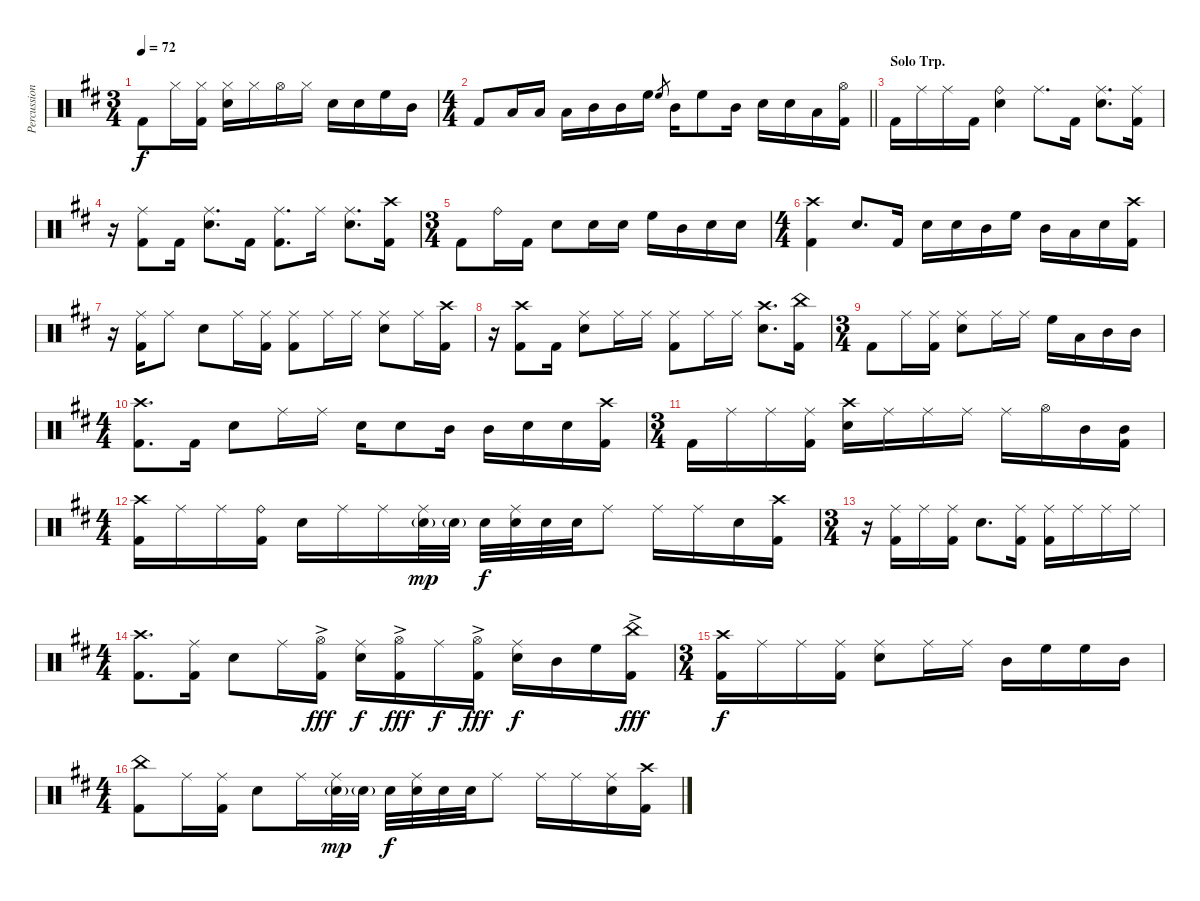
\track ("Percussions" "Percussion") {instrument percussion}
\staff {score}
\articulation defaults
\ts (3 4)
\tempo 72
\clef neutral
\ks bminor "Kick (hit) 2".8{dy f} "Hi-Hat (closed)".16
("Hi-Hat (closed)" "Kick (hit) 2").16 ("Hi-Hat (closed)" "Snare (hit) 2").16 "Hi-Hat (closed)".16 "Hi-Hat (open)".16 "Hi-Hat (closed)".16 "Snare (hit) 2".16 "Snare (hit) 2".16 "High Floor Tom (hit)".16 "Mid Tom (hit)".16 |
\ts (4 4)
\barLineRight lightlight "Kick (hit) 2".8 "Low Floor Tom (hit)".16 "Low Tom (hit)".16 "Low Tom (hit)".16 "Mid Tom (hit)".16 "Mid Tom (hit)".16 "High Floor Tom (hit)".16 "High Floor Tom (hit)".8{gr} "Mid Tom (hit)".16 "High Floor Tom (hit)".8 "Mid Tom (hit)".16 "Snare (hit) 2".16 "Snare (hit) 2".16 "Low Tom (hit)".16
("Hi-Hat (open)" "Kick (hit) 2").16 |
\section ("" "Solo Trp.")
"Kick (hit) 2".16 "Ride (middle)".16 "Ride (middle)".16 "Kick (hit) 2".16 ("Ride (bell)" "Snare (hit) 2").4 "Ride (middle)".8{d} "Kick (hit) 2".16 ("Ride (middle)" "Snare (hit) 2").8{d} ("Ride (middle)" "Kick (hit) 2").16 |
r.16 ("Ride (middle)" "Kick (hit) 2").8 "Kick (hit) 2".16 ("Ride (middle)" "Snare (hit) 2").8{d} "Kick (hit) 2".16 ("Ride (middle)" "Kick (hit) 2").8{d} "Ride (middle)".16 ("Ride (middle)" "Snare (hit) 2").8{d} ("Crash high (hit)" "Kick (hit) 2").16 |
\ts (3 4)
"Kick (hit) 2".8 "Ride (bell)".16 "Kick (hit) 2".16 "Snare (hit) 2".8 "Snare (hit) 2".16 "Snare (hit) 2".16 "High Floor Tom (hit)".16 "Mid Tom (hit)".16 "Snare (hit) 2".16 "Snare (hit) 2".16 |
\ts (4 4)
("Crash high (hit)" "Kick (hit) 2").4 "Snare (hit) 2".8{d} "Kick (hit) 2".16 "Snare (hit) 2".16 "Snare (hit) 2".16 "Mid Tom (hit)".16 "High Floor Tom (hit)".16 "Mid Tom (hit)".16 "Low Tom (hit)".16 "Snare (hit) 2".16 ("Crash high (hit)" "Kick (hit) 2").16 |
r.16 ("Ride (middle)" "Kick (hit) 2").16 "Ride (middle)".8 "Snare (hit) 2".8 "Ride (middle)".16 ("Ride (middle)" "Kick (hit) 2").16 ("Ride (middle)" "Kick (hit) 2").8 "Ride (middle)".16 "Ride (middle)".16 ("Ride (middle)" "Snare (hit) 2").8 "Ride (middle)".16 ("Crash high (hit)" "Kick (hit) 2").16 |
r.16 ("Crash high (hit)" "Kick (hit) 2").8 "Kick (hit) 2".16 ("Ride (middle)" "Snare (hit) 2").8 "Ride (middle)".16 "Ride (middle)".16 ("Ride (middle)" "Kick (hit) 2").8 "Ride (middle)".16 "Ride (middle)".16 ("Crash high (hit)" "Snare (hit) 2").8{d} ("China (hit)" "Kick (hit) 2").16 |
\ts (3 4)
"Kick (hit) 2".8 "Ride (middle)".16 ("Ride (middle)" "Kick (hit) 2").16 ("Ride (middle)" "Snare (hit) 2").8 "Ride (middle)".16 "Ride (middle)".16 "High Floor Tom (hit)".16 "Low Tom (hit)".16 "Mid Tom (hit)".16 "Mid Tom (hit)".16 |
\ts (4 4)
("Crash high (hit)" "Kick (hit) 2").8{d} "Kick (hit) 2".16 "Snare (hit) 2".8 "Ride (middle)".16 "Ride (middle)".16 "Snare (hit) 2".16 "Snare (hit) 2".8 "Mid Tom (hit)".16 "Mid Tom (hit)".16 "Snare (hit) 2".16 "Snare (hit) 2".16 ("Crash high (hit)" "Kick (hit) 2").16 |
\ts (3 4)
"Kick (hit) 2".16 "Ride (middle)".16 "Ride (middle)".16 ("Ride (middle)" "Kick (hit) 2").16 ("Crash high (hit)" "Snare (hit) 2").16 "Ride (middle)".16 "Ride (middle)".16 "Ride (middle)".16 "Ride (middle)".16 "Hi-Hat (open)".16 "Mid Tom (hit)".16 ("Mid Tom (hit)" "Kick (hit) 2").16 |
\ts (4 4)
("Crash high (hit)" "Kick (hit) 2").16 "Ride (middle)".16 "Ride (middle)".16 ("Ride (bell)" "Kick (hit) 2").16 "Snare (hit) 2".16 "Ride (middle)".16 "Ride (middle)".16 ("Ride (middle)" "Snare (hit) 2"{g}).32{dy mp} "Snare (hit) 2"{g}.32 "Snare (hit) 2".32{dy f} ("Ride (middle)" "Snare (hit) 2").32 "Snare (hit) 2".32 "Snare (hit) 2".32 "Ride (middle)".8 "Ride (middle)".16 "Ride (middle)".16 "Snare (hit) 2".16 ("Crash high (hit)" "Kick (hit) 2").16 |
\ts (3 4)
r.16 ("Ride (middle)" "Kick (hit) 2").16 "Ride (middle)".16 ("Ride (middle)" "Kick (hit) 2").16 "Snare (hit) 2".8{d} ("Ride (middle)" "Kick (hit) 2").16 ("Ride (middle)" "Kick (hit) 2").16 "Ride (middle)".16 "Ride (middle)".16 "Ride (middle)".16 |
\ts (4 4)
("Crash high (hit)" "Kick (hit) 2").8{d} ("Ride (middle)" "Kick (hit) 2").16 "Snare (hit) 2".8 "Ride (middle)".16 ("Hi-Hat (open)"{ac} "Kick (hit) 2").16{dy fff} ("Ride (middle)" "Snare (hit) 2").16{dy f} ("Hi-Hat (open)"{ac} "Kick (hit) 2").16{dy fff} "Ride (middle)".16{dy f} ("Hi-Hat (open)"{ac} "Kick (hit) 2").16{dy fff} ("Ride (middle)" "Snare (hit) 2").16{dy f} "Mid Tom (hit)".16 "High Floor Tom (hit)".16 ("China (hit)"{ac} "Kick (hit) 2").16{dy fff} |
\ts (3 4)
("Crash high (hit)" "Kick (hit) 2").16{dy f} "Ride (middle)".16 "Ride (middle)".16 ("Ride (middle)" "Kick (hit) 2").16 ("Ride (middle)" "Snare (hit) 2").8 "Ride (middle)".16 "Ride (middle)".16 "Mid Tom (hit)".16 "High Floor Tom (hit)".16 "High Floor Tom (hit)".16 "Mid Tom (hit)".16 |
\ts (4 4)
("China (hit)" "Kick (hit) 2").8 "Ride (middle)".16 ("Ride (middle)" "Kick (hit) 2").16 "Snare (hit) 2".8 "Ride (middle)".16 ("Ride (middle)" "Snare (hit) 2"{g}).32{dy mp} "Snare (hit) 2"{g}.32 "Snare (hit) 2".32{dy f} ("Ride (middle)" "Snare (hit) 2").32 "Snare (hit) 2".32 "Snare (hit) 2".32 "Ride (middle)".8 "Ride (middle)".16 "Ride (middle)".16 ("Ride (middle)" "Snare (hit) 2").16 ("Crash high (hit)" "Kick (hit) 2").16
